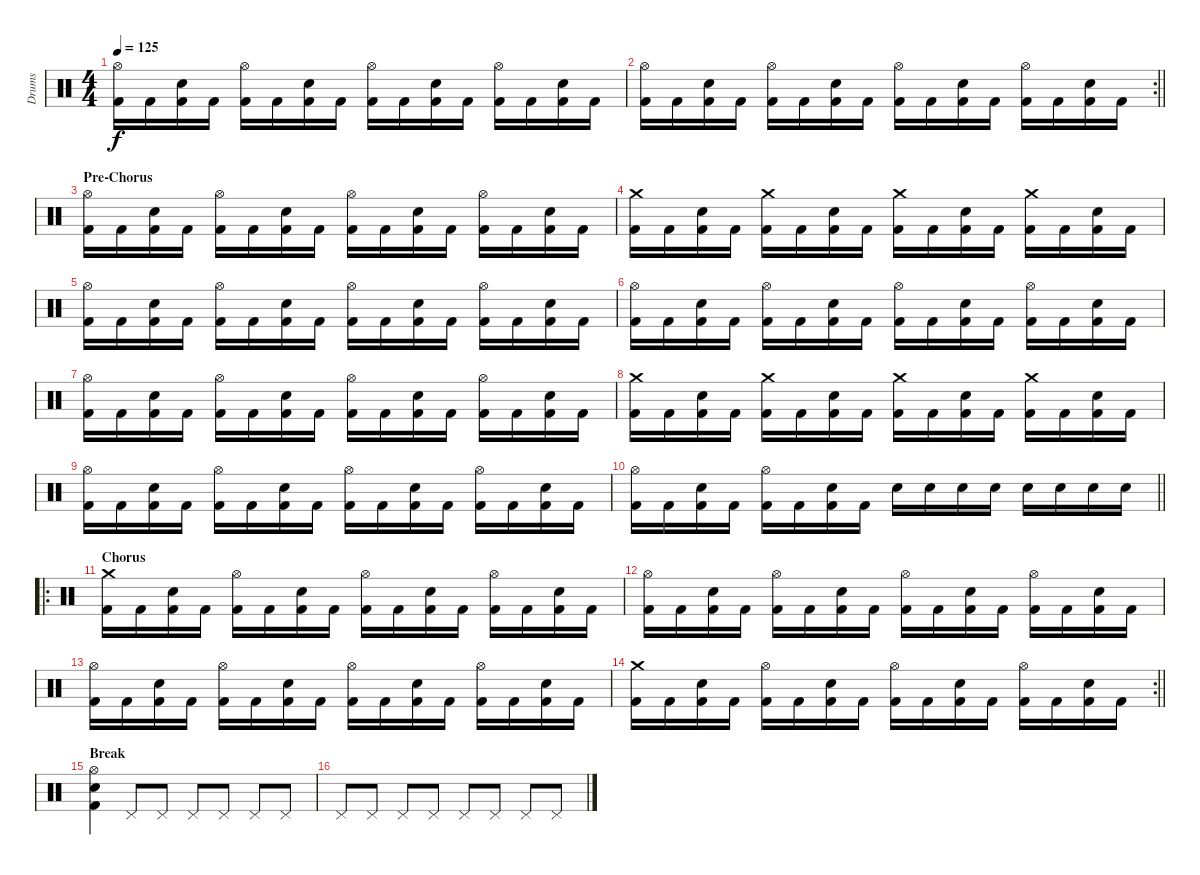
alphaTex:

\track ("Drums" "Drums") {instrument percussion}
\staff {score}
\articulation defaults
\ts (4 4)
\tempo 125
\clef neutral
\ks c
("Hi-Hat (open)" "Kick (hit) 2").16{dy f} "Kick (hit) 2".16 ("Snare (hit) 2" "Kick (hit) 2").16 "Kick (hit) 2".16 ("Hi-Hat (open)" "Kick (hit) 2").16 "Kick (hit) 2".16 ("Snare (hit) 2" "Kick (hit) 2").16 "Kick (hit) 2".16 ("Hi-Hat (open)" "Kick (hit) 2").16 "Kick (hit) 2".16 ("Snare (hit) 2" "Kick (hit) 2").16 "Kick (hit) 2".16 ("Hi-Hat (open)" "Kick (hit) 2").16 "Kick (hit) 2".16 ("Snare (hit) 2" "Kick (hit) 2").16 "Kick (hit) 2".16 |
\rc 2
\barLineRight lightlight
("Hi-Hat (open)" "Kick (hit) 2").16 "Kick (hit) 2".16 ("Snare (hit) 2" "Kick (hit) 2").16 "Kick (hit) 2".16 ("Hi-Hat (open)" "Kick (hit) 2").16 "Kick (hit) 2".16 ("Snare (hit) 2" "Kick (hit) 2").16 "Kick (hit) 2".16 ("Hi-Hat (open)" "Kick (hit) 2").16 "Kick (hit) 2".16 ("Snare (hit) 2" "Kick (hit) 2").16 "Kick (hit) 2".16 ("Hi-Hat (open)" "Kick (hit) 2").16 "Kick (hit) 2".16 ("Snare (hit) 2" "Kick (hit) 2").16 "Kick (hit) 2".16 |
\section ("" "Pre-Chorus")
("Hi-Hat (open)" "Kick (hit) 2").16 "Kick (hit) 2".16 ("Snare (hit) 2" "Kick (hit) 2").16 "Kick (hit) 2".16 ("Hi-Hat (open)" "Kick (hit) 2").16 "Kick (hit) 2".16 ("Snare (hit) 2" "Kick (hit) 2").16 "Kick (hit) 2".16 ("Hi-Hat (open)" "Kick (hit) 2").16 "Kick (hit) 2".16 ("Snare (hit) 2" "Kick (hit) 2").16 "Kick (hit) 2".16 ("Hi-Hat (open)" "Kick (hit) 2").16 "Kick (hit) 2".16 ("Snare (hit) 2" "Kick (hit) 2").16 "Kick (hit) 2".16 |
("Crash medium (hit)" "Kick (hit) 2").16 "Kick (hit) 2".16 ("Snare (hit) 2" "Kick (hit) 2").16 "Kick (hit) 2".16 ("Crash medium (hit)" "Kick (hit) 2").16 "Kick (hit) 2".16 ("Snare (hit) 2" "Kick (hit) 2").16 "Kick (hit) 2".16 ("Crash medium (hit)" "Kick (hit) 2").16 "Kick (hit) 2".16 ("Snare (hit) 2" "Kick (hit) 2").16 "Kick (hit) 2".16 ("Crash medium (hit)" "Kick (hit) 2").16 "Kick (hit) 2".16 ("Snare (hit) 2" "Kick (hit) 2").16 "Kick (hit) 2".16 |
("Hi-Hat (open)" "Kick (hit) 2").16 "Kick (hit) 2".16 ("Snare (hit) 2" "Kick (hit) 2").16 "Kick (hit) 2".16 ("Hi-Hat (open)" "Kick (hit) 2").16 "Kick (hit) 2".16 ("Snare (hit) 2" "Kick (hit) 2").16 "Kick (hit) 2".16 ("Hi-Hat (open)" "Kick (hit) 2").16 "Kick (hit) 2".16 ("Snare (hit) 2" "Kick (hit) 2").16 "Kick (hit) 2".16 ("Hi-Hat (open)" "Kick (hit) 2").16 "Kick (hit) 2".16 ("Snare (hit) 2" "Kick (hit) 2").16 "Kick (hit) 2".16 |
("Hi-Hat (open)" "Kick (hit) 2").16 "Kick (hit) 2".16 ("Snare (hit) 2" "Kick (hit) 2").16 "Kick (hit) 2".16 ("Hi-Hat (open)" "Kick (hit) 2").16 "Kick (hit) 2".16 ("Snare (hit) 2" "Kick (hit) 2").16 "Kick (hit) 2".16 ("Hi-Hat (open)" "Kick (hit) 2").16 "Kick (hit) 2".16 ("Snare (hit) 2" "Kick (hit) 2").16 "Kick (hit) 2".16 ("Hi-Hat (open)" "Kick (hit) 2").16 "Kick (hit) 2".16 ("Snare (hit) 2" "Kick (hit) 2").16 "Kick (hit) 2".16 |
("Hi-Hat (open)" "Kick (hit) 2").16 "Kick (hit) 2".16 ("Snare (hit) 2" "Kick (hit) 2").16 "Kick (hit) 2".16 ("Hi-Hat (open)" "Kick (hit) 2").16 "Kick (hit) 2".16 ("Snare (hit) 2" "Kick (hit) 2").16 "Kick (hit) 2".16 ("Hi-Hat (open)" "Kick (hit) 2").16 "Kick (hit) 2".16 ("Snare (hit) 2" "Kick (hit) 2").16 "Kick (hit) 2".16 ("Hi-Hat (open)" "Kick (hit) 2").16 "Kick (hit) 2".16 ("Snare (hit) 2" "Kick (hit) 2").16 "Kick (hit) 2".16 |
("Crash medium (hit)" "Kick (hit) 2").16 "Kick (hit) 2".16 ("Snare (hit) 2" "Kick (hit) 2").16 "Kick (hit) 2".16 ("Crash medium (hit)" "Kick (hit) 2").16 "Kick (hit) 2".16 ("Snare (hit) 2" "Kick (hit) 2").16 "Kick (hit) 2".16 ("Crash medium (hit)" "Kick (hit) 2").16 "Kick (hit) 2".16 ("Snare (hit) 2" "Kick (hit) 2").16 "Kick (hit) 2".16 ("Crash medium (hit)" "Kick (hit) 2").16 "Kick (hit) 2".16 ("Snare (hit) 2" "Kick (hit) 2").16 "Kick (hit) 2".16 |
("Hi-Hat (open)" "Kick (hit) 2").16 "Kick (hit) 2".16 ("Snare (hit) 2" "Kick (hit) 2").16 "Kick (hit) 2".16 ("Hi-Hat (open)" "Kick (hit) 2").16 "Kick (hit) 2".16 ("Snare (hit) 2" "Kick (hit) 2").16 "Kick (hit) 2".16 ("Hi-Hat (open)" "Kick (hit) 2").16 "Kick (hit) 2".16 ("Snare (hit) 2" "Kick (hit) 2").16 "Kick (hit) 2".16 ("Hi-Hat (open)" "Kick (hit) 2").16 "Kick (hit) 2".16 ("Snare (hit) 2" "Kick (hit) 2").16 "Kick (hit) 2".16 |
\barLineRight lightlight
("Hi-Hat (open)" "Kick (hit) 2").16 "Kick (hit) 2".16 ("Snare (hit) 2" "Kick (hit) 2").16 "Kick (hit) 2".16 ("Hi-Hat (open)" "Kick (hit) 2").16 "Kick (hit) 2".16 ("Snare (hit) 2" "Kick (hit) 2").16 "Kick (hit) 2".16 "Snare (hit) 2".16 "Snare (hit) 2".16 "Snare (hit) 2".16 "Snare (hit) 2".16 "Snare (hit) 2".16 "Snare (hit) 2".16 "Snare (hit) 2".16 "Snare (hit) 2".16 |
\ro
\section ("" "Chorus")
("Crash medium (hit)" "Kick (hit) 2").16 "Kick (hit) 2".16 ("Snare (hit) 2" "Kick (hit) 2").16 "Kick (hit) 2".16 ("Hi-Hat (open)" "Kick (hit) 2").16 "Kick (hit) 2".16 ("Snare (hit) 2" "Kick (hit) 2").16 "Kick (hit) 2".16 ("Hi-Hat (open)" "Kick (hit) 2").16 "Kick (hit) 2".16 ("Snare (hit) 2" "Kick (hit) 2").16 "Kick (hit) 2".16 ("Hi-Hat (open)" "Kick (hit) 2").16 "Kick (hit) 2".16 ("Snare (hit) 2" "Kick (hit) 2").16 "Kick (hit) 2".16 |
("Hi-Hat (open)" "Kick (hit) 2").16 "Kick (hit) 2".16 ("Snare (hit) 2" "Kick (hit) 2").16 "Kick (hit) 2".16 ("Hi-Hat (open)" "Kick (hit) 2").16 "Kick (hit) 2".16 ("Snare (hit) 2" "Kick (hit) 2").16 "Kick (hit) 2".16 ("Hi-Hat (open)" "Kick (hit) 2").16 "Kick (hit) 2".16 ("Snare (hit) 2" "Kick (hit) 2").16 "Kick (hit) 2".16 ("Hi-Hat (open)" "Kick (hit) 2").16 "Kick (hit) 2".16 ("Snare (hit) 2" "Kick (hit) 2").16 "Kick (hit) 2".16 |
("Hi-Hat (open)" "Kick (hit) 2").16 "Kick (hit) 2".16 ("Snare (hit) 2" "Kick (hit) 2").16 "Kick (hit) 2".16 ("Hi-Hat (open)" "Kick (hit) 2").16 "Kick (hit) 2".16 ("Snare (hit) 2" "Kick (hit) 2").16 "Kick (hit) 2".16 ("Hi-Hat (open)" "Kick (hit) 2").16 "Kick (hit) 2".16 ("Snare (hit) 2" "Kick (hit) 2").16 "Kick (hit) 2".16 ("Hi-Hat (open)" "Kick (hit) 2").16 "Kick (hit) 2".16 ("Snare (hit) 2" "Kick (hit) 2").16 "Kick (hit) 2".16 |
\rc 2
\barLineRight lightlight
("Crash medium (hit)" "Kick (hit) 2").16 "Kick (hit) 2".16 ("Snare (hit) 2" "Kick (hit) 2").16 "Kick (hit) 2".16 ("Hi-Hat (open)" "Kick (hit) 2").16 "Kick (hit) 2".16 ("Snare (hit) 2" "Kick (hit) 2").16 "Kick (hit) 2".16 ("Hi-Hat (open)" "Kick (hit) 2").16 "Kick (hit) 2".16 ("Snare (hit) 2" "Kick (hit) 2").16 "Kick (hit) 2".16 ("Hi-Hat (open)" "Kick (hit) 2").16 "Kick (hit) 2".16 ("Snare (hit) 2" "Kick (hit) 2").16 "Kick (hit) 2".16 |
\section ("" "Break")
("Hi-Hat (open)" "Snare (hit) 2" "Kick (hit) 2").4 "Pedal Hi-Hat (hit)".8 "Pedal Hi-Hat (hit)".8 "Pedal Hi-Hat (hit)".8 "Pedal Hi-Hat (hit)".8 "Pedal Hi-Hat (hit)".8 "Pedal Hi-Hat (hit)".8 |
"Pedal Hi-Hat (hit)".8 "Pedal Hi-Hat (hit)".8 "Pedal Hi-Hat (hit)".8 "Pedal Hi-Hat (hit)".8 "Pedal Hi-Hat (hit)".8 "Pedal Hi-Hat (hit)".8 "Pedal Hi-Hat (hit)".8 "Pedal Hi-Hat (hit)".8
